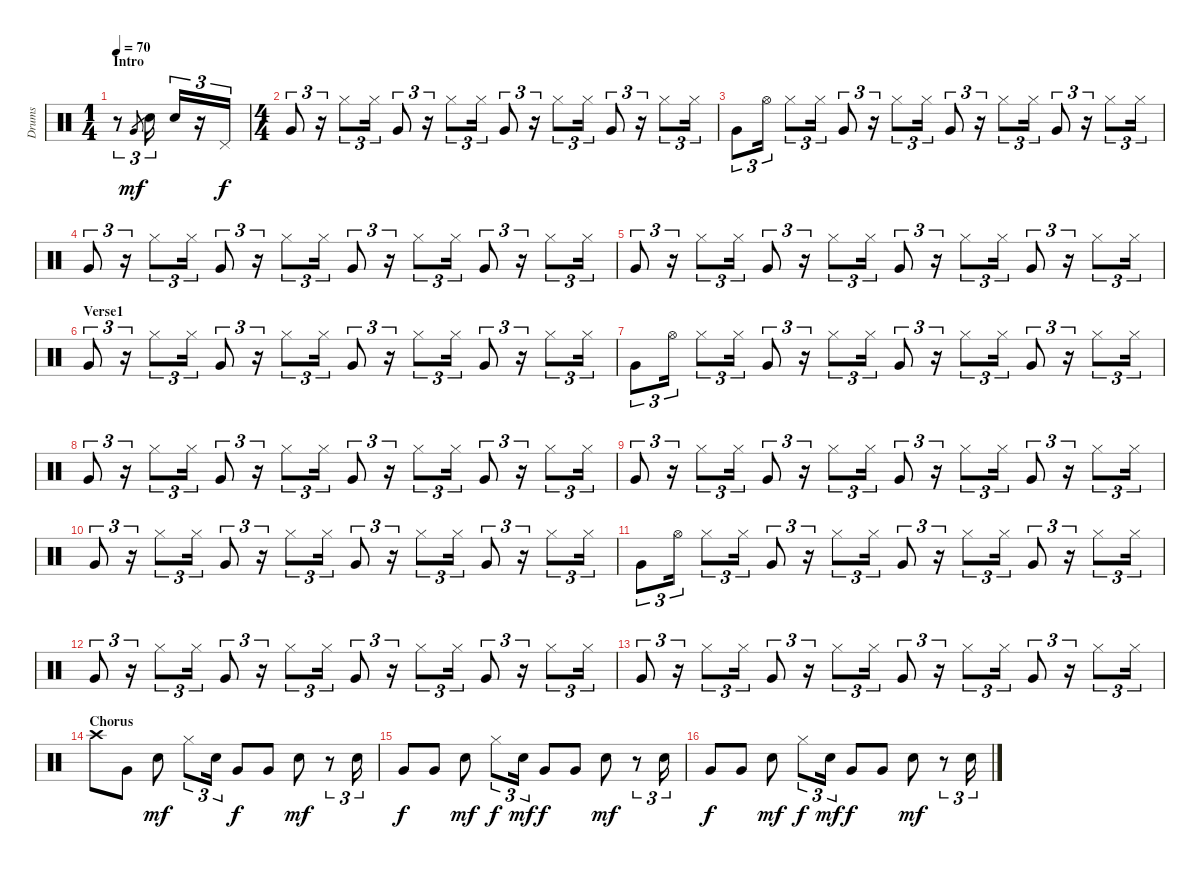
\track ("Drums" "Drums") {instrument percussion}
\staff {score}
\articulation defaults
\ts (1 4)
\section ("" "Intro")
\tempo 70
\clef neutral
\ks c
r.8{tu (3 2) dy mf} "Very Low Tom (hit)".8{gr} "Electric Snare (hit)".16{tu (3 2)} "Electric Snare (hit)".16{tu (3 2)} r.16{tu (3 2)} "Pedal Hi-Hat (hit)".16{tu (3 2) dy f} |
\ts (4 4)
"Very Low Tom (hit)".8{tu (3 2) volume 9} r.16{tu (3 2)} "Hi-Hat (closed)".8{tu (3 2)} "Hi-Hat (closed)".16{tu (3 2)} "Very Low Tom (hit)".8{tu (3 2)} r.16{tu (3 2)} "Hi-Hat (closed)".8{tu (3 2)} "Hi-Hat (closed)".16{tu (3 2)} "Very Low Tom (hit)".8{tu (3 2)} r.16{tu (3 2)} "Hi-Hat (closed)".8{tu (3 2)} "Hi-Hat (closed)".16{tu (3 2)} "Very Low Tom (hit)".8{tu (3 2)} r.16{tu (3 2)} "Hi-Hat (closed)".8{tu (3 2)} "Hi-Hat (closed)".16{tu (3 2)} |
"Very Low Tom (hit)".8{tu (3 2)} "Hi-Hat (open)".16{tu (3 2)} "Hi-Hat (closed)".8{tu (3 2)} "Hi-Hat (closed)".16{tu (3 2)} "Very Low Tom (hit)".8{tu (3 2)} r.16{tu (3 2)} "Hi-Hat (closed)".8{tu (3 2)} "Hi-Hat (closed)".16{tu (3 2)} "Very Low Tom (hit)".8{tu (3 2)} r.16{tu (3 2)} "Hi-Hat (closed)".8{tu (3 2)} "Hi-Hat (closed)".16{tu (3 2)} "Very Low Tom (hit)".8{tu (3 2)} r.16{tu (3 2)} "Hi-Hat (closed)".8{tu (3 2)} "Hi-Hat (closed)".16{tu (3 2)} |
"Very Low Tom (hit)".8{tu (3 2)} r.16{tu (3 2)} "Hi-Hat (closed)".8{tu (3 2)} "Hi-Hat (closed)".16{tu (3 2)} "Very Low Tom (hit)".8{tu (3 2)} r.16{tu (3 2)} "Hi-Hat (closed)".8{tu (3 2)} "Hi-Hat (closed)".16{tu (3 2)} "Very Low Tom (hit)".8{tu (3 2)} r.16{tu (3 2)} "Hi-Hat (closed)".8{tu (3 2)} "Hi-Hat (closed)".16{tu (3 2)} "Very Low Tom (hit)".8{tu (3 2)} r.16{tu (3 2)} "Hi-Hat (closed)".8{tu (3 2)} "Hi-Hat (closed)".16{tu (3 2)} |
"Very Low Tom (hit)".8{tu (3 2)} r.16{tu (3 2)} "Hi-Hat (closed)".8{tu (3 2)} "Hi-Hat (closed)".16{tu (3 2)} "Very Low Tom (hit)".8{tu (3 2)} r.16{tu (3 2)} "Hi-Hat (closed)".8{tu (3 2)} "Hi-Hat (closed)".16{tu (3 2)} "Very Low Tom (hit)".8{tu (3 2)} r.16{tu (3 2)} "Hi-Hat (closed)".8{tu (3 2)} "Hi-Hat (closed)".16{tu (3 2)} "Very Low Tom (hit)".8{tu (3 2)} r.16{tu (3 2)} "Hi-Hat (closed)".8{tu (3 2)} "Hi-Hat (closed)".16{tu (3 2)} |
\section ("" "Verse1")
"Very Low Tom (hit)".8{tu (3 2)} r.16{tu (3 2)} "Hi-Hat (closed)".8{tu (3 2)} "Hi-Hat (closed)".16{tu (3 2)} "Very Low Tom (hit)".8{tu (3 2)} r.16{tu (3 2)} "Hi-Hat (closed)".8{tu (3 2)} "Hi-Hat (closed)".16{tu (3 2)} "Very Low Tom (hit)".8{tu (3 2)} r.16{tu (3 2)} "Hi-Hat (closed)".8{tu (3 2)} "Hi-Hat (closed)".16{tu (3 2)} "Very Low Tom (hit)".8{tu (3 2)} r.16{tu (3 2)} "Hi-Hat (closed)".8{tu (3 2)} "Hi-Hat (closed)".16{tu (3 2)} |
"Very Low Tom (hit)".8{tu (3 2)} "Hi-Hat (open)".16{tu (3 2)} "Hi-Hat (closed)".8{tu (3 2)} "Hi-Hat (closed)".16{tu (3 2)} "Very Low Tom (hit)".8{tu (3 2)} r.16{tu (3 2)} "Hi-Hat (closed)".8{tu (3 2)} "Hi-Hat (closed)".16{tu (3 2)} "Very Low Tom (hit)".8{tu (3 2)} r.16{tu (3 2)} "Hi-Hat (closed)".8{tu (3 2)} "Hi-Hat (closed)".16{tu (3 2)} "Very Low Tom (hit)".8{tu (3 2)} r.16{tu (3 2)} "Hi-Hat (closed)".8{tu (3 2)} "Hi-Hat (closed)".16{tu (3 2)} |
"Very Low Tom (hit)".8{tu (3 2)} r.16{tu (3 2)} "Hi-Hat (closed)".8{tu (3 2)} "Hi-Hat (closed)".16{tu (3 2)} "Very Low Tom (hit)".8{tu (3 2)} r.16{tu (3 2)} "Hi-Hat (closed)".8{tu (3 2)} "Hi-Hat (closed)".16{tu (3 2)} "Very Low Tom (hit)".8{tu (3 2)} r.16{tu (3 2)} "Hi-Hat (closed)".8{tu (3 2)} "Hi-Hat (closed)".16{tu (3 2)} "Very Low Tom (hit)".8{tu (3 2)} r.16{tu (3 2)} "Hi-Hat (closed)".8{tu (3 2)} "Hi-Hat (closed)".16{tu (3 2)} |
"Very Low Tom (hit)".8{tu (3 2)} r.16{tu (3 2)} "Hi-Hat (closed)".8{tu (3 2)} "Hi-Hat (closed)".16{tu (3 2)} "Very Low Tom (hit)".8{tu (3 2)} r.16{tu (3 2)} "Hi-Hat (closed)".8{tu (3 2)} "Hi-Hat (closed)".16{tu (3 2)} "Very Low Tom (hit)".8{tu (3 2)} r.16{tu (3 2)} "Hi-Hat (closed)".8{tu (3 2)} "Hi-Hat (closed)".16{tu (3 2)} "Very Low Tom (hit)".8{tu (3 2)} r.16{tu (3 2)} "Hi-Hat (closed)".8{tu (3 2)} "Hi-Hat (closed)".16{tu (3 2)} |
"Very Low Tom (hit)".8{tu (3 2)} r.16{tu (3 2)} "Hi-Hat (closed)".8{tu (3 2)} "Hi-Hat (closed)".16{tu (3 2)} "Very Low Tom (hit)".8{tu (3 2)} r.16{tu (3 2)} "Hi-Hat (closed)".8{tu (3 2)} "Hi-Hat (closed)".16{tu (3 2)} "Very Low Tom (hit)".8{tu (3 2)} r.16{tu (3 2)} "Hi-Hat (closed)".8{tu (3 2)} "Hi-Hat (closed)".16{tu (3 2)} "Very Low Tom (hit)".8{tu (3 2)} r.16{tu (3 2)} "Hi-Hat (closed)".8{tu (3 2)} "Hi-Hat (closed)".16{tu (3 2)} |
"Very Low Tom (hit)".8{tu (3 2)} "Hi-Hat (open)".16{tu (3 2)} "Hi-Hat (closed)".8{tu (3 2)} "Hi-Hat (closed)".16{tu (3 2)} "Very Low Tom (hit)".8{tu (3 2)} r.16{tu (3 2)} "Hi-Hat (closed)".8{tu (3 2)} "Hi-Hat (closed)".16{tu (3 2)} "Very Low Tom (hit)".8{tu (3 2)} r.16{tu (3 2)} "Hi-Hat (closed)".8{tu (3 2)} "Hi-Hat (closed)".16{tu (3 2)} "Very Low Tom (hit)".8{tu (3 2)} r.16{tu (3 2)} "Hi-Hat (closed)".8{tu (3 2)} "Hi-Hat (closed)".16{tu (3 2)} |
"Very Low Tom (hit)".8{tu (3 2)} r.16{tu (3 2)} "Hi-Hat (closed)".8{tu (3 2)} "Hi-Hat (closed)".16{tu (3 2)} "Very Low Tom (hit)".8{tu (3 2)} r.16{tu (3 2)} "Hi-Hat (closed)".8{tu (3 2)} "Hi-Hat (closed)".16{tu (3 2)} "Very Low Tom (hit)".8{tu (3 2)} r.16{tu (3 2)} "Hi-Hat (closed)".8{tu (3 2)} "Hi-Hat (closed)".16{tu (3 2)} "Very Low Tom (hit)".8{tu (3 2)} r.16{tu (3 2)} "Hi-Hat (closed)".8{tu (3 2)} "Hi-Hat (closed)".16{tu (3 2)} |
"Very Low Tom (hit)".8{tu (3 2)} r.16{tu (3 2)} "Hi-Hat (closed)".8{tu (3 2)} "Hi-Hat (closed)".16{tu (3 2)} "Very Low Tom (hit)".8{tu (3 2)} r.16{tu (3 2)} "Hi-Hat (closed)".8{tu (3 2)} "Hi-Hat (closed)".16{tu (3 2)} "Very Low Tom (hit)".8{tu (3 2)} r.16{tu (3 2)} "Hi-Hat (closed)".8{tu (3 2)} "Hi-Hat (closed)".16{tu (3 2)} "Very Low Tom (hit)".8{tu (3 2)} r.16{tu (3 2)} "Hi-Hat (closed)".8{tu (3 2)} "Hi-Hat (closed)".16{tu (3 2)} |
\section ("" "Chorus")
"Crash high (hit)".8{volume 11} "Very Low Tom (hit)".8 "Electric Snare (hit)".8{dy mf} "Hi-Hat (closed)".8{tu (3 2)} "Electric Snare (hit)".16{tu (3 2)} "Very Low Tom (hit)".8{dy f} "Very Low Tom (hit)".8 "Electric Snare (hit)".8{dy mf} r.8{tu (3 2)} "Electric Snare (hit)".16{tu (3 2)} |
"Very Low Tom (hit)".8{dy f} "Very Low Tom (hit)".8 "Electric Snare (hit)".8{dy mf} "Hi-Hat (closed)".8{tu (3 2) dy f} "Electric Snare (hit)".16{tu (3 2) dy mf} "Very Low Tom (hit)".8{dy f} "Very Low Tom (hit)".8 "Electric Snare (hit)".8{dy mf} r.8{tu (3 2)} "Electric Snare (hit)".16{tu (3 2)} |
"Very Low Tom (hit)".8{dy f} "Very Low Tom (hit)".8 "Electric Snare (hit)".8{dy mf} "Hi-Hat (closed)".8{tu (3 2) dy f} "Electric Snare (hit)".16{tu (3 2) dy mf} "Very Low Tom (hit)".8{dy f} "Very Low Tom (hit)".8 "Electric Snare (hit)".8{dy mf} r.8{tu (3 2)} "Electric Snare (hit)".16{tu (3 2)}
